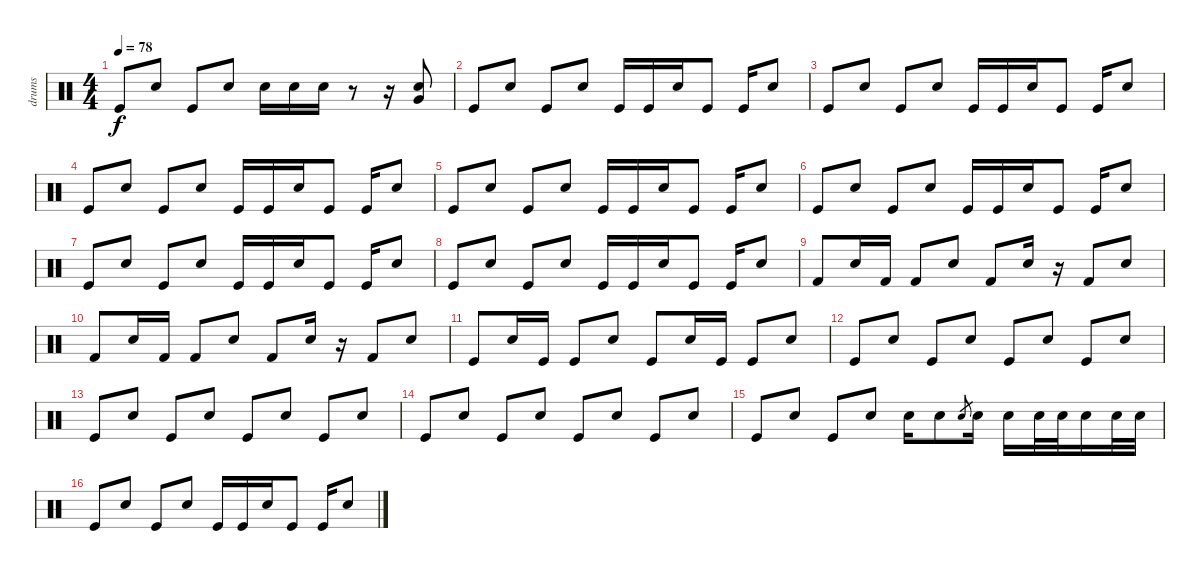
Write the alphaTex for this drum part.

\track ("drums" "drums") {instrument percussion}
\staff {score}
\articulation defaults
\ts (4 4)
\tempo 78
\clef neutral
\ks c "Kick (hit)".8{dy f} "Snare (hit) 2".8 "Kick (hit)".8 "Snare (hit) 2".8 "Snare (hit) 2".16 "Snare (hit) 2".16 "Snare (hit) 2".16
r.8 r.16 ("Very Low Tom (hit)" "Snare (hit) 2").8 |
"Kick (hit)".8 "Snare (hit) 2".8 "Kick (hit)".8 "Snare (hit) 2".8 "Kick (hit)".16 "Kick (hit)".16 "Snare (hit) 2".16 "Kick (hit)".8 "Kick (hit)".16 "Snare (hit) 2".8 |
"Kick (hit)".8 "Snare (hit) 2".8 "Kick (hit)".8 "Snare (hit) 2".8 "Kick (hit)".16 "Kick (hit)".16 "Snare (hit) 2".16 "Kick (hit)".8 "Kick (hit)".16 "Snare (hit) 2".8 |
"Kick (hit)".8 "Snare (hit) 2".8 "Kick (hit)".8 "Snare (hit) 2".8 "Kick (hit)".16 "Kick (hit)".16 "Snare (hit) 2".16 "Kick (hit)".8 "Kick (hit)".16 "Snare (hit) 2".8 |
"Kick (hit)".8 "Snare (hit) 2".8 "Kick (hit)".8 "Snare (hit) 2".8 "Kick (hit)".16 "Kick (hit)".16 "Snare (hit) 2".16 "Kick (hit)".8 "Kick (hit)".16 "Snare (hit) 2".8 |
"Kick (hit)".8 "Snare (hit) 2".8 "Kick (hit)".8 "Snare (hit) 2".8 "Kick (hit)".16 "Kick (hit)".16 "Snare (hit) 2".16 "Kick (hit)".8 "Kick (hit)".16 "Snare (hit) 2".8 |
"Kick (hit)".8 "Snare (hit) 2".8 "Kick (hit)".8 "Snare (hit) 2".8 "Kick (hit)".16 "Kick (hit)".16 "Snare (hit) 2".16 "Kick (hit)".8 "Kick (hit)".16 "Snare (hit) 2".8 |
"Kick (hit)".8 "Snare (hit) 2".8 "Kick (hit)".8 "Snare (hit) 2".8 "Kick (hit)".16 "Kick (hit)".16 "Snare (hit) 2".16 "Kick (hit)".8 "Kick (hit)".16 "Snare (hit) 2".8 |
"Kick (hit) 2".8 "Snare (hit) 2".16 "Kick (hit) 2".16 "Kick (hit) 2".8 "Snare (hit) 2".8 "Kick (hit) 2".8 "Snare (hit) 2".16 r.16 "Kick (hit) 2".8 "Snare (hit) 2".8 |
"Kick (hit) 2".8 "Snare (hit) 2".16 "Kick (hit) 2".16 "Kick (hit) 2".8 "Snare (hit) 2".8 "Kick (hit) 2".8 "Snare (hit) 2".16 r.16 "Kick (hit) 2".8 "Snare (hit) 2".8 |
"Kick (hit)".8 "Snare (hit) 2".16 "Kick (hit)".16 "Kick (hit)".8 "Snare (hit) 2".8 "Kick (hit)".8 "Snare (hit) 2".16 "Kick (hit)".16 "Kick (hit)".8 "Snare (hit) 2".8 |
"Kick (hit)".8 "Snare (hit) 2".8 "Kick (hit)".8 "Snare (hit) 2".8 "Kick (hit)".8 "Snare (hit) 2".8 "Kick (hit)".8 "Snare (hit) 2".8 |
"Kick (hit)".8 "Snare (hit) 2".8 "Kick (hit)".8 "Snare (hit) 2".8 "Kick (hit)".8 "Snare (hit) 2".8 "Kick (hit)".8 "Snare (hit) 2".8 |
"Kick (hit)".8 "Snare (hit) 2".8 "Kick (hit)".8 "Snare (hit) 2".8 "Kick (hit)".8 "Snare (hit) 2".8 "Kick (hit)".8 "Snare (hit) 2".8 |
"Kick (hit)".8 "Snare (hit) 2".8 "Kick (hit)".8 "Snare (hit) 2".8 "Snare (hit) 2".16 "Snare (hit) 2".8 "Snare (hit) 2".8{gr} "Snare (hit) 2".16 "Snare (hit) 2".16 "Snare (hit) 2".32 "Snare (hit) 2".32 "Snare (hit) 2".16 "Snare (hit) 2".32 "Snare (hit) 2".32 |
"Kick (hit)".8 "Snare (hit) 2".8 "Kick (hit)".8 "Snare (hit) 2".8 "Kick (hit)".16 "Kick (hit)".16 "Snare (hit) 2".16 "Kick (hit)".8 "Kick (hit)".16 "Snare (hit) 2".8
